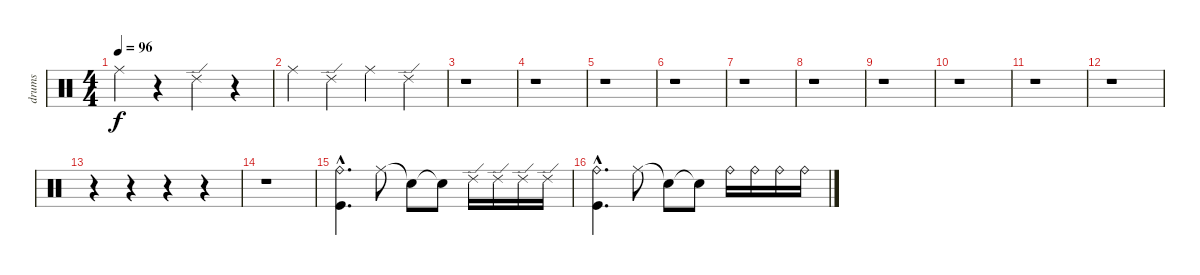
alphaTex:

\track ("drums" "drums") {instrument percussion}
\staff {score}
\articulation defaults
\ts (4 4)
\tempo 96
\clef neutral
\ks c "Ride (middle)".4{dy f}
r.4 "Ride (edge) 2".4 r.4 |
"Ride (middle)".4 "Ride (edge) 2".4 "Ride (middle)".4 "Ride (edge) 2".4 |
r.1 |
r.1 |
r.1 |
r.1 |
r.1 |
r.1 |
r.1 |
r.1 |
r.1 |
r.1 |
r.4 r.4 r.4 r.4 |
r.1 |
("Ride (bell)"{hac} "Kick (hit)"{hac}).4{d} "Ride (middle)".8 "Snare (hit)"{t}.8 "Snare (hit)"{t}.8 "Ride (edge) 2".16 "Ride (edge) 2".16 "Ride (edge) 2".16 "Ride (edge) 2".16 |
("Ride (bell)"{hac} "Kick (hit)"{hac}).4{d} "Ride (middle)".8 "Snare (hit)"{t}.8 "Snare (hit)"{t}.8 "Ride (bell)".16 "Ride (bell)".16 "Ride (bell)".16 "Ride (bell)".16
